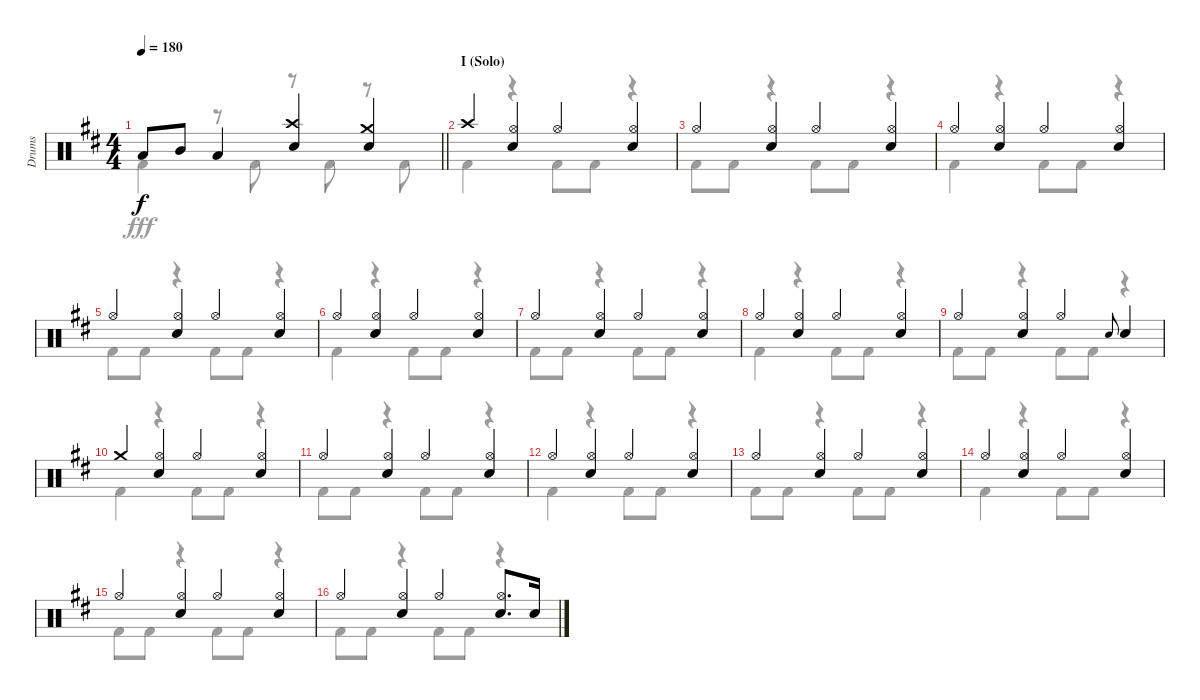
\track ("Drums" "Drums") {instrument percussion}
\staff {score}
\articulation defaults
\voice
\ts (4 4)
\tempo 180
\clef neutral
\barLineRight lightlight
\ks d "Low Tom (hit)".8{dy f} "Mid Tom (hit)".8 "Low Tom (hit)".4
("Crash high (hit)" "Snare (hit) 2").4 ("Crash medium (hit)" "Snare (hit) 2").4 |
\section ("" "I (Solo)")
"Crash high (hit)".4 ("Hi-Hat (open)" "Snare (hit) 2").4 "Hi-Hat (open)".4 ("Hi-Hat (open)" "Snare (hit) 2").4 |
"Hi-Hat (open)".4 ("Hi-Hat (open)" "Snare (hit) 2").4 "Hi-Hat (open)".4 ("Hi-Hat (open)" "Snare (hit) 2").4 |
"Hi-Hat (open)".4 ("Hi-Hat (open)" "Snare (hit) 2").4 "Hi-Hat (open)".4 ("Hi-Hat (open)" "Snare (hit) 2").4 |
"Hi-Hat (open)".4 ("Hi-Hat (open)" "Snare (hit) 2").4 "Hi-Hat (open)".4 ("Hi-Hat (open)" "Snare (hit) 2").4 |
"Hi-Hat (open)".4 ("Hi-Hat (open)" "Snare (hit) 2").4 "Hi-Hat (open)".4 ("Hi-Hat (open)" "Snare (hit) 2").4 |
"Hi-Hat (open)".4 ("Hi-Hat (open)" "Snare (hit) 2").4 "Hi-Hat (open)".4 ("Hi-Hat (open)" "Snare (hit) 2").4 |
"Hi-Hat (open)".4 ("Hi-Hat (open)" "Snare (hit) 2").4 "Hi-Hat (open)".4 ("Hi-Hat (open)" "Snare (hit) 2").4 |
"Hi-Hat (open)".4 ("Hi-Hat (open)" "Snare (hit) 2").4 "Hi-Hat (open)".4 "Snare (hit) 2".8{gr onbeat} "Snare (hit) 2".4 |
"Crash medium (hit)".4 ("Hi-Hat (open)" "Snare (hit) 2").4 "Hi-Hat (open)".4 ("Hi-Hat (open)" "Snare (hit) 2").4 |
"Hi-Hat (open)".4 ("Hi-Hat (open)" "Snare (hit) 2").4 "Hi-Hat (open)".4 ("Hi-Hat (open)" "Snare (hit) 2").4 |
"Hi-Hat (open)".4 ("Hi-Hat (open)" "Snare (hit) 2").4 "Hi-Hat (open)".4 ("Hi-Hat (open)" "Snare (hit) 2").4 |
"Hi-Hat (open)".4 ("Hi-Hat (open)" "Snare (hit) 2").4 "Hi-Hat (open)".4 ("Hi-Hat (open)" "Snare (hit) 2").4 |
"Hi-Hat (open)".4 ("Hi-Hat (open)" "Snare (hit) 2").4 "Hi-Hat (open)".4 ("Hi-Hat (open)" "Snare (hit) 2").4 |
"Hi-Hat (open)".4 ("Hi-Hat (open)" "Snare (hit) 2").4 "Hi-Hat (open)".4 ("Hi-Hat (open)" "Snare (hit) 2").4 |
"Hi-Hat (open)".4 ("Hi-Hat (open)" "Snare (hit) 2").4 "Hi-Hat (open)".4 ("Hi-Hat (open)" "Snare (hit) 2").8{d} "Snare (hit) 2".16
\voice
\clef neutral
\ottava regular
\simile none
\barLineRight lightlight
\ks d "Kick (hit) 2".4{dy fff}
r.8 "Kick (hit) 2".8 r.8 "Kick (hit) 2".8 r.8 "Kick (hit) 2".8 |
"Kick (hit) 2".4 r.4 "Kick (hit) 2".8 "Kick (hit) 2".8 r.4 |
"Kick (hit) 2".8 "Kick (hit) 2".8 r.4 "Kick (hit) 2".8 "Kick (hit) 2".8 r.4 |
"Kick (hit) 2".4 r.4 "Kick (hit) 2".8 "Kick (hit) 2".8 r.4 |
"Kick (hit) 2".8 "Kick (hit) 2".8 r.4 "Kick (hit) 2".8 "Kick (hit) 2".8 r.4 |
"Kick (hit) 2".4 r.4 "Kick (hit) 2".8 "Kick (hit) 2".8 r.4 |
"Kick (hit) 2".8 "Kick (hit) 2".8 r.4 "Kick (hit) 2".8 "Kick (hit) 2".8 r.4 |
"Kick (hit) 2".4 r.4 "Kick (hit) 2".8 "Kick (hit) 2".8 r.4 |
"Kick (hit) 2".8 "Kick (hit) 2".8 r.4 "Kick (hit) 2".8 "Kick (hit) 2".8 r.4 |
"Kick (hit) 2".4 r.4 "Kick (hit) 2".8 "Kick (hit) 2".8 r.4 |
"Kick (hit) 2".8 "Kick (hit) 2".8 r.4 "Kick (hit) 2".8 "Kick (hit) 2".8 r.4 |
"Kick (hit) 2".4 r.4 "Kick (hit) 2".8 "Kick (hit) 2".8 r.4 |
"Kick (hit) 2".8 "Kick (hit) 2".8 r.4 "Kick (hit) 2".8 "Kick (hit) 2".8 r.4 |
"Kick (hit) 2".4 r.4 "Kick (hit) 2".8 "Kick (hit) 2".8 r.4 |
"Kick (hit) 2".8 "Kick (hit) 2".8 r.4 "Kick (hit) 2".8 "Kick (hit) 2".8 r.4 |
"Kick (hit) 2".8 "Kick (hit) 2".8 r.4 "Kick (hit) 2".8 "Kick (hit) 2".8 r.4
